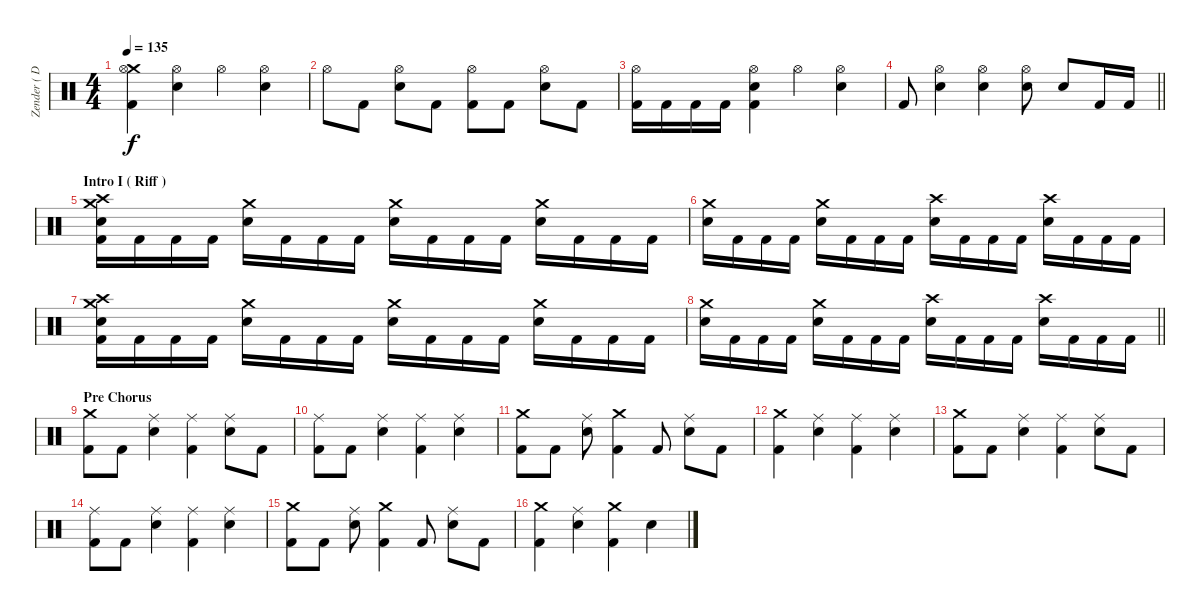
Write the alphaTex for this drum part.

\track ("Zender ( Drums )" "Zender ( D") {instrument percussion}
\staff {score}
\articulation defaults
\ts (4 4)
\tempo 135
\clef neutral
\ks c
("Crash medium (hit)" "Hi-Hat (open)" "Kick (hit) 2").4{dy f} ("Hi-Hat (open)" "Electric Snare (hit)").4 "Hi-Hat (open)".4 ("Hi-Hat (open)" "Electric Snare (hit)").4 |
"Hi-Hat (open)".8 "Kick (hit) 2".8 ("Hi-Hat (open)" "Electric Snare (hit)").8 "Kick (hit) 2".8 ("Hi-Hat (open)" "Kick (hit) 2").8 "Kick (hit) 2".8 ("Hi-Hat (open)" "Electric Snare (hit)").8 "Kick (hit) 2".8 |
("Hi-Hat (open)" "Kick (hit) 2").16 "Kick (hit) 2".16 "Kick (hit) 2".16 "Kick (hit) 2".16 ("Hi-Hat (open)" "Electric Snare (hit)" "Kick (hit) 2").4 "Hi-Hat (open)".4 ("Hi-Hat (open)" "Electric Snare (hit)").4 |
\barLineRight lightlight "Kick (hit) 2".8
("Hi-Hat (open)" "Electric Snare (hit)").4 ("Hi-Hat (open)" "Electric Snare (hit)").4 ("Hi-Hat (open)" "Electric Snare (hit)").8 "Electric Snare (hit)".8 "Kick (hit) 2".16 "Kick (hit) 2".16 |
\section ("" "Intro I ( Riff )")
("Crash medium (hit)" "Crash high (hit)" "Electric Snare (hit)" "Kick (hit) 2").16 "Kick (hit) 2".16 "Kick (hit) 2".16 "Kick (hit) 2".16 ("Crash medium (hit)" "Electric Snare (hit)").16 "Kick (hit) 2".16 "Kick (hit) 2".16 "Kick (hit) 2".16 ("Crash medium (hit)" "Electric Snare (hit)").16 "Kick (hit) 2".16 "Kick (hit) 2".16 "Kick (hit) 2".16 ("Crash medium (hit)" "Electric Snare (hit)").16 "Kick (hit) 2".16 "Kick (hit) 2".16 "Kick (hit) 2".16 |
("Crash medium (hit)" "Electric Snare (hit)").16 "Kick (hit) 2".16 "Kick (hit) 2".16 "Kick (hit) 2".16 ("Crash medium (hit)" "Electric Snare (hit)").16 "Kick (hit) 2".16 "Kick (hit) 2".16 "Kick (hit) 2".16 ("Crash high (hit)" "Electric Snare (hit)").16 "Kick (hit) 2".16 "Kick (hit) 2".16 "Kick (hit) 2".16 ("Crash high (hit)" "Electric Snare (hit)").16 "Kick (hit) 2".16 "Kick (hit) 2".16 "Kick (hit) 2".16 |
("Crash medium (hit)" "Crash high (hit)" "Electric Snare (hit)" "Kick (hit) 2").16 "Kick (hit) 2".16 "Kick (hit) 2".16 "Kick (hit) 2".16 ("Crash medium (hit)" "Electric Snare (hit)").16 "Kick (hit) 2".16 "Kick (hit) 2".16 "Kick (hit) 2".16 ("Crash medium (hit)" "Electric Snare (hit)").16 "Kick (hit) 2".16 "Kick (hit) 2".16 "Kick (hit) 2".16 ("Crash medium (hit)" "Electric Snare (hit)").16 "Kick (hit) 2".16 "Kick (hit) 2".16 "Kick (hit) 2".16 |
\barLineRight lightlight
("Crash medium (hit)" "Electric Snare (hit)").16 "Kick (hit) 2".16 "Kick (hit) 2".16 "Kick (hit) 2".16 ("Crash medium (hit)" "Electric Snare (hit)").16 "Kick (hit) 2".16 "Kick (hit) 2".16 "Kick (hit) 2".16 ("Crash high (hit)" "Electric Snare (hit)").16 "Kick (hit) 2".16 "Kick (hit) 2".16 "Kick (hit) 2".16 ("Crash high (hit)" "Electric Snare (hit)").16 "Kick (hit) 2".16 "Kick (hit) 2".16 "Kick (hit) 2".16 |
\section ("" "Pre Chorus")
("Crash medium (hit)" "Kick (hit) 2").8 "Kick (hit) 2".8 ("Ride (middle)" "Electric Snare (hit)").4 ("Ride (middle)" "Kick (hit) 2").4 ("Ride (middle)" "Electric Snare (hit)").8 "Kick (hit) 2".8 |
("Ride (middle)" "Kick (hit) 2").8 "Kick (hit) 2".8 ("Ride (middle)" "Electric Snare (hit)").4 ("Ride (middle)" "Kick (hit) 2").4 ("Ride (middle)" "Electric Snare (hit)").4 |
("Crash medium (hit)" "Kick (hit) 2").8 "Kick (hit) 2".8 ("Ride (middle)" "Electric Snare (hit)").8 ("Crash medium (hit)" "Kick (hit) 2").4 "Kick (hit) 2".8 ("Ride (middle)" "Electric Snare (hit)").8 "Kick (hit) 2".8 |
("Crash medium (hit)" "Kick (hit) 2").4 ("Ride (middle)" "Electric Snare (hit)").4 ("Ride (middle)" "Kick (hit) 2").4 ("Ride (middle)" "Electric Snare (hit)").4 |
("Crash medium (hit)" "Kick (hit) 2").8 "Kick (hit) 2".8 ("Ride (middle)" "Electric Snare (hit)").4 ("Ride (middle)" "Kick (hit) 2").4 ("Ride (middle)" "Electric Snare (hit)").8 "Kick (hit) 2".8 |
("Ride (middle)" "Kick (hit) 2").8 "Kick (hit) 2".8 ("Ride (middle)" "Electric Snare (hit)").4 ("Ride (middle)" "Kick (hit) 2").4 ("Ride (middle)" "Electric Snare (hit)").4 |
("Crash medium (hit)" "Kick (hit) 2").8 "Kick (hit) 2".8 ("Ride (middle)" "Electric Snare (hit)").8 ("Crash medium (hit)" "Kick (hit) 2").4 "Kick (hit) 2".8 ("Ride (middle)" "Electric Snare (hit)").8 "Kick (hit) 2".8 |
("Crash medium (hit)" "Kick (hit) 2").4 ("Ride (middle)" "Electric Snare (hit)").4 ("Crash medium (hit)" "Kick (hit) 2").4 "Electric Snare (hit)".4
